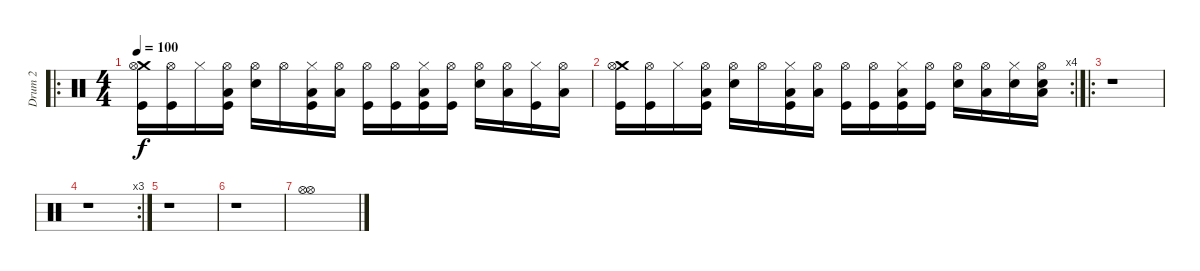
\track ("Drum 2" "Drum 2") {instrument percussion}
\staff {score}
\articulation defaults
\ro
\ts (4 4)
\tempo 100
\clef neutral
\ks c
("Crash medium (hit)" "Hi-Hat (open)" "Kick (hit)").16{dy f} ("Hi-Hat (open)" "Kick (hit)").16 "Hi-Hat (closed)".16 ("Hi-Hat (open)" "Kick (hit)" "Low Tom (hit)").16 ("Hi-Hat (open)" "Electric Snare (hit)").16 "Hi-Hat (open)".16 ("Hi-Hat (closed)" "Kick (hit)" "Low Floor Tom (hit)").16 ("Hi-Hat (open)" "Low Floor Tom (hit)").16 ("Hi-Hat (open)" "Kick (hit)").16 ("Hi-Hat (open)" "Kick (hit)").16 ("Hi-Hat (closed)" "Kick (hit)" "Low Tom (hit)").16 ("Hi-Hat (open)" "Kick (hit)").16 ("Hi-Hat (open)" "Electric Snare (hit)").16 ("Hi-Hat (open)" "Low Floor Tom (hit)").16 ("Hi-Hat (closed)" "Kick (hit)").16 ("Hi-Hat (open)" "Low Floor Tom (hit)").16 |
\rc 4
("Crash medium (hit)" "Hi-Hat (open)" "Kick (hit)").16 ("Hi-Hat (open)" "Kick (hit)").16 "Hi-Hat (closed)".16 ("Hi-Hat (open)" "Kick (hit)" "Low Tom (hit)").16 ("Hi-Hat (open)" "Electric Snare (hit)").16 "Hi-Hat (open)".16 ("Hi-Hat (closed)" "Kick (hit)" "Low Floor Tom (hit)").16 ("Hi-Hat (open)" "Low Floor Tom (hit)").16 ("Hi-Hat (open)" "Kick (hit)").16 ("Hi-Hat (open)" "Kick (hit)").16 ("Hi-Hat (closed)" "Kick (hit)" "Low Tom (hit)").16 ("Hi-Hat (open)" "Kick (hit)").16 ("Hi-Hat (open)" "Electric Snare (hit)").16 ("Hi-Hat (open)" "Low Floor Tom (hit)").16 ("Hi-Hat (closed)" "Electric Snare (hit)").16 ("Hi-Hat (open)" "Electric Snare (hit)" "Low Floor Tom (hit)").16 |
\ro
r.1 |
\rc 3
r.1 |
r.1 |
r.1 |
("Hi-Hat (open)" "Hi-Hat (open)").1
